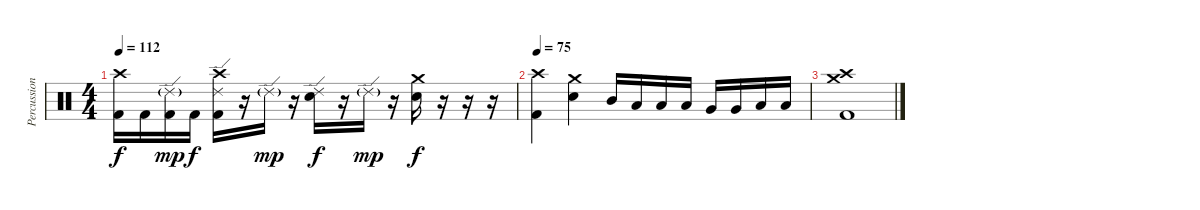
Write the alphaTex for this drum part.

\track ("Percussion" "Percussion") {instrument percussion}
\staff {score}
\articulation defaults
\ts (4 4)
\tempo 112
\clef neutral
\ks c
("Crash high (hit)" "Kick (hit) 2").16{dy f} "Kick (hit) 2".16 ("Ride (edge) 2"{g} "Kick (hit) 2").16{dy mp} "Kick (hit) 2".16{dy f} ("Crash high (hit)" "Ride (edge) 2" "Kick (hit) 2").16 r.16 "Ride (edge) 2"{g}.16{dy mp} r.16 ("Ride (edge) 2" "Electric Snare (hit)").16{dy f} r.16 "Ride (edge) 2"{g}.16{dy mp} r.16 ("Crash medium (hit)" "Electric Snare (hit)").16{dy f} r.16 r.16 r.16 |
\tempo 75
("Crash high (hit)" "Kick (hit) 2").4 ("Crash medium (hit)" "Electric Snare (hit)").4 "Mid Tom (hit)".16 "Low Tom (hit)".16 "Low Tom (hit)".16 "Low Tom (hit)".16 "Very Low Tom (hit)".16 "Very Low Tom (hit)".16 "Low Floor Tom (hit)".16 "Low Floor Tom (hit)".16 |
("Crash medium (hit)" "Crash high (hit)" "Kick (hit) 2").1
